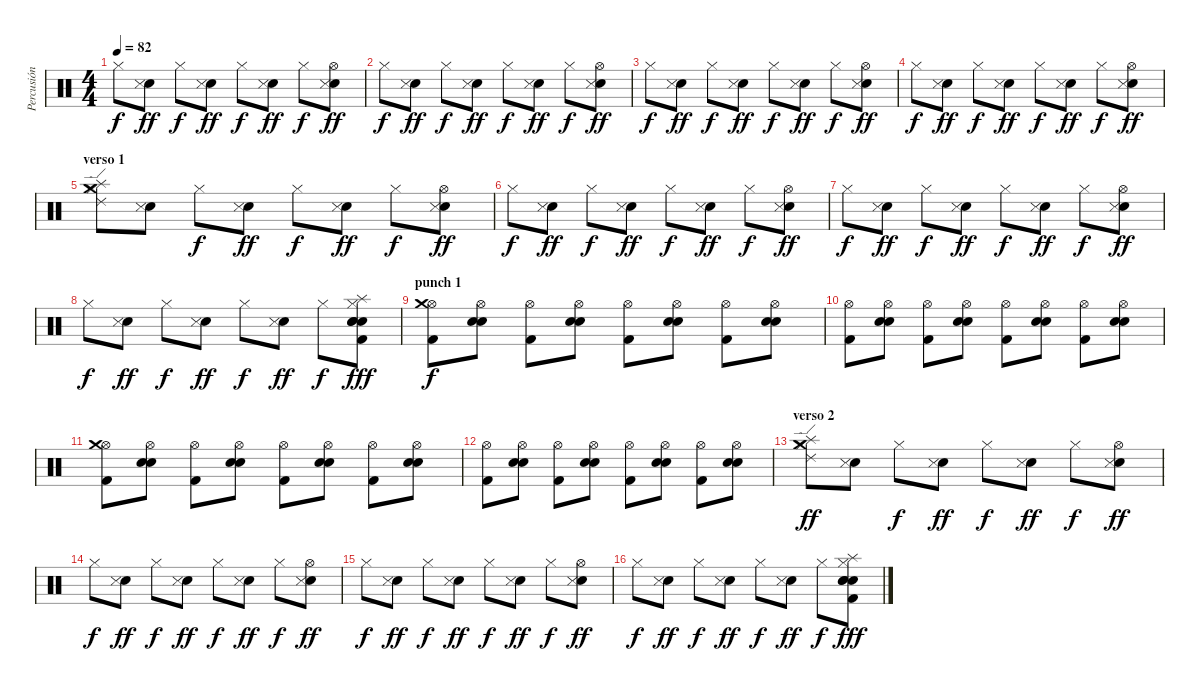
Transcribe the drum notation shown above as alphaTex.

\track ("Percusión" "Percusión") {instrument percussion}
\staff {score}
\articulation defaults
\ts (4 4)
\tempo 82
\clef neutral
\ks c "Hi-Hat (closed)".8{dy f}
("Electric Snare (hit)" "Snare (side stick) 3").8{dy ff} "Hi-Hat (closed)".8{dy f} ("Electric Snare (hit)" "Snare (side stick) 3").8{dy ff} "Hi-Hat (closed)".8{dy f} ("Electric Snare (hit)" "Snare (side stick) 3").8{dy ff} "Hi-Hat (closed)".8{dy f} ("Electric Snare (hit)" "Snare (side stick) 3" "Hi-Hat (open)").8{dy ff} |
"Hi-Hat (closed)".8{dy f} ("Electric Snare (hit)" "Snare (side stick) 3").8{dy ff} "Hi-Hat (closed)".8{dy f} ("Electric Snare (hit)" "Snare (side stick) 3").8{dy ff} "Hi-Hat (closed)".8{dy f} ("Electric Snare (hit)" "Snare (side stick) 3").8{dy ff} "Hi-Hat (closed)".8{dy f} ("Electric Snare (hit)" "Snare (side stick) 3" "Hi-Hat (open)").8{dy ff} |
"Hi-Hat (closed)".8{dy f} ("Electric Snare (hit)" "Snare (side stick) 3").8{dy ff} "Hi-Hat (closed)".8{dy f} ("Electric Snare (hit)" "Snare (side stick) 3").8{dy ff} "Hi-Hat (closed)".8{dy f} ("Electric Snare (hit)" "Snare (side stick) 3").8{dy ff} "Hi-Hat (closed)".8{dy f} ("Electric Snare (hit)" "Snare (side stick) 3" "Hi-Hat (open)").8{dy ff} |
"Hi-Hat (closed)".8{dy f} ("Electric Snare (hit)" "Snare (side stick) 3").8{dy ff} "Hi-Hat (closed)".8{dy f} ("Electric Snare (hit)" "Snare (side stick) 3").8{dy ff} "Hi-Hat (closed)".8{dy f} ("Electric Snare (hit)" "Snare (side stick) 3").8{dy ff} "Hi-Hat (closed)".8{dy f} ("Electric Snare (hit)" "Snare (side stick) 3" "Hi-Hat (open)").8{dy ff} |
\section ("" "verso 1")
("Hi-Hat (closed)" "Splash (hit)" "Crash medium (hit)" "Ride (edge) 2").8 ("Electric Snare (hit)" "Snare (side stick) 3").8 "Hi-Hat (closed)".8{dy f} ("Electric Snare (hit)" "Snare (side stick) 3").8{dy ff} "Hi-Hat (closed)".8{dy f} ("Electric Snare (hit)" "Snare (side stick) 3").8{dy ff} "Hi-Hat (closed)".8{dy f} ("Electric Snare (hit)" "Snare (side stick) 3" "Hi-Hat (open)").8{dy ff} |
"Hi-Hat (closed)".8{dy f} ("Electric Snare (hit)" "Snare (side stick) 3").8{dy ff} "Hi-Hat (closed)".8{dy f} ("Electric Snare (hit)" "Snare (side stick) 3").8{dy ff} "Hi-Hat (closed)".8{dy f} ("Electric Snare (hit)" "Snare (side stick) 3").8{dy ff} "Hi-Hat (closed)".8{dy f} ("Electric Snare (hit)" "Snare (side stick) 3" "Hi-Hat (open)").8{dy ff} |
"Hi-Hat (closed)".8{dy f} ("Electric Snare (hit)" "Snare (side stick) 3").8{dy ff} "Hi-Hat (closed)".8{dy f} ("Electric Snare (hit)" "Snare (side stick) 3").8{dy ff} "Hi-Hat (closed)".8{dy f} ("Electric Snare (hit)" "Snare (side stick) 3").8{dy ff} "Hi-Hat (closed)".8{dy f} ("Electric Snare (hit)" "Snare (side stick) 3" "Hi-Hat (open)").8{dy ff} |
"Hi-Hat (closed)".8{dy f} ("Electric Snare (hit)" "Snare (side stick) 3").8{dy ff} "Hi-Hat (closed)".8{dy f} ("Electric Snare (hit)" "Snare (side stick) 3").8{dy ff} "Hi-Hat (closed)".8{dy f} ("Electric Snare (hit)" "Snare (side stick) 3").8{dy ff} "Hi-Hat (closed)".8{dy f} ("Electric Snare (hit)" "Snare (hit) 2" "Kick (hit) 2" "Snare (hit) 2" "Hi-Hat (closed)" "Splash (hit)").8{dy fff} |
\section ("" "punch 1")
("Hi-Hat (open)" "Crash medium (hit)" "Kick (hit) 2").8{dy f} ("Snare (hit) 2" "Electric Snare (hit)" "Hi-Hat (open)").8 ("Hi-Hat (open)" "Kick (hit) 2").8 ("Snare (hit) 2" "Electric Snare (hit)" "Hi-Hat (open)").8 ("Hi-Hat (open)" "Kick (hit) 2").8 ("Snare (hit) 2" "Electric Snare (hit)" "Hi-Hat (open)").8 ("Hi-Hat (open)" "Kick (hit) 2").8 ("Snare (hit) 2" "Electric Snare (hit)" "Hi-Hat (open)").8 |
("Hi-Hat (open)" "Kick (hit) 2").8 ("Snare (hit) 2" "Electric Snare (hit)" "Hi-Hat (open)").8 ("Hi-Hat (open)" "Kick (hit) 2").8 ("Snare (hit) 2" "Electric Snare (hit)" "Hi-Hat (open)").8 ("Hi-Hat (open)" "Kick (hit) 2").8 ("Snare (hit) 2" "Electric Snare (hit)" "Hi-Hat (open)").8 ("Hi-Hat (open)" "Kick (hit) 2").8 ("Snare (hit) 2" "Electric Snare (hit)" "Hi-Hat (open)").8 |
("Hi-Hat (open)" "Crash medium (hit)" "Kick (hit) 2").8 ("Snare (hit) 2" "Electric Snare (hit)" "Hi-Hat (open)").8 ("Hi-Hat (open)" "Kick (hit) 2").8 ("Snare (hit) 2" "Electric Snare (hit)" "Hi-Hat (open)").8 ("Hi-Hat (open)" "Kick (hit) 2").8 ("Snare (hit) 2" "Electric Snare (hit)" "Hi-Hat (open)").8 ("Hi-Hat (open)" "Kick (hit) 2").8 ("Snare (hit) 2" "Electric Snare (hit)" "Hi-Hat (open)").8 |
("Hi-Hat (open)" "Kick (hit) 2").8 ("Snare (hit) 2" "Electric Snare (hit)" "Hi-Hat (open)").8 ("Hi-Hat (open)" "Kick (hit) 2").8 ("Snare (hit) 2" "Electric Snare (hit)" "Hi-Hat (open)").8 ("Hi-Hat (open)" "Kick (hit) 2").8 ("Snare (hit) 2" "Electric Snare (hit)" "Hi-Hat (open)").8 ("Hi-Hat (open)" "Kick (hit) 2").8 ("Snare (hit) 2" "Electric Snare (hit)" "Hi-Hat (open)").8 |
\section ("" "verso 2")
("Hi-Hat (closed)" "Splash (hit)" "Crash medium (hit)" "Ride (edge) 2").8{dy ff} ("Electric Snare (hit)" "Snare (side stick) 3").8 "Hi-Hat (closed)".8{dy f} ("Electric Snare (hit)" "Snare (side stick) 3").8{dy ff} "Hi-Hat (closed)".8{dy f} ("Electric Snare (hit)" "Snare (side stick) 3").8{dy ff} "Hi-Hat (closed)".8{dy f} ("Electric Snare (hit)" "Snare (side stick) 3" "Hi-Hat (open)").8{dy ff} |
"Hi-Hat (closed)".8{dy f} ("Electric Snare (hit)" "Snare (side stick) 3").8{dy ff} "Hi-Hat (closed)".8{dy f} ("Electric Snare (hit)" "Snare (side stick) 3").8{dy ff} "Hi-Hat (closed)".8{dy f} ("Electric Snare (hit)" "Snare (side stick) 3").8{dy ff} "Hi-Hat (closed)".8{dy f} ("Electric Snare (hit)" "Snare (side stick) 3" "Hi-Hat (open)").8{dy ff} |
"Hi-Hat (closed)".8{dy f} ("Electric Snare (hit)" "Snare (side stick) 3").8{dy ff} "Hi-Hat (closed)".8{dy f} ("Electric Snare (hit)" "Snare (side stick) 3").8{dy ff} "Hi-Hat (closed)".8{dy f} ("Electric Snare (hit)" "Snare (side stick) 3").8{dy ff} "Hi-Hat (closed)".8{dy f} ("Electric Snare (hit)" "Snare (side stick) 3" "Hi-Hat (open)").8{dy ff} |
"Hi-Hat (closed)".8{dy f} ("Electric Snare (hit)" "Snare (side stick) 3").8{dy ff} "Hi-Hat (closed)".8{dy f} ("Electric Snare (hit)" "Snare (side stick) 3").8{dy ff} "Hi-Hat (closed)".8{dy f} ("Electric Snare (hit)" "Snare (side stick) 3").8{dy ff} "Hi-Hat (closed)".8{dy f} ("Electric Snare (hit)" "Snare (hit) 2" "Kick (hit) 2" "Snare (hit) 2" "Hi-Hat (closed)" "Splash (hit)").8{dy fff}
